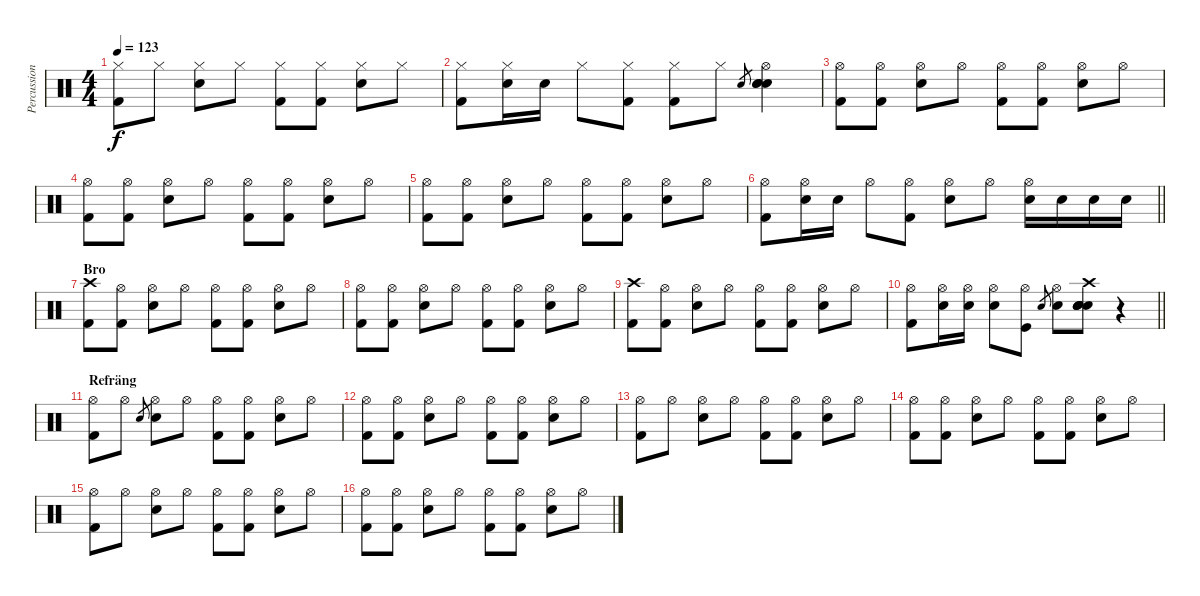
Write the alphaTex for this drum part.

\track ("Percussion" "Percussion") {instrument percussion}
\staff {score}
\articulation defaults
\ts (4 4)
\tempo 123
\clef neutral
\ks c
("Hi-Hat (closed)" "Kick (hit) 2").8{dy f} "Hi-Hat (closed)".8 ("Hi-Hat (closed)" "Snare (hit) 2").8 "Hi-Hat (closed)".8 ("Hi-Hat (closed)" "Kick (hit) 2").8 ("Hi-Hat (closed)" "Kick (hit) 2").8 ("Hi-Hat (closed)" "Snare (hit) 2").8 "Hi-Hat (closed)".8 |
("Hi-Hat (closed)" "Kick (hit) 2").8 ("Hi-Hat (closed)" "Snare (hit) 2").16 "Snare (hit) 2".16 "Hi-Hat (closed)".8 ("Hi-Hat (closed)" "Kick (hit) 2").8 ("Hi-Hat (closed)" "Kick (hit) 2").8 "Hi-Hat (closed)".8 "Snare (hit) 2".8{gr} ("Hi-Hat (open)" "Snare (hit) 2" "Snare (hit) 2" "Snare (hit) 2").4 |
("Hi-Hat (open)" "Kick (hit) 2").8 ("Hi-Hat (open)" "Kick (hit) 2").8 ("Hi-Hat (open)" "Snare (hit) 2").8 "Hi-Hat (open)".8 ("Hi-Hat (open)" "Kick (hit) 2").8 ("Hi-Hat (open)" "Kick (hit) 2").8 ("Hi-Hat (open)" "Snare (hit) 2").8 "Hi-Hat (open)".8 |
("Hi-Hat (open)" "Kick (hit) 2").8 ("Hi-Hat (open)" "Kick (hit) 2").8 ("Hi-Hat (open)" "Snare (hit) 2").8 "Hi-Hat (open)".8 ("Hi-Hat (open)" "Kick (hit) 2").8 ("Hi-Hat (open)" "Kick (hit) 2").8 ("Hi-Hat (open)" "Snare (hit) 2").8 "Hi-Hat (open)".8 |
("Hi-Hat (open)" "Kick (hit) 2").8 ("Hi-Hat (open)" "Kick (hit) 2").8 ("Hi-Hat (open)" "Snare (hit) 2").8 "Hi-Hat (open)".8 ("Hi-Hat (open)" "Kick (hit) 2").8 ("Hi-Hat (open)" "Kick (hit) 2").8 ("Hi-Hat (open)" "Snare (hit) 2").8 "Hi-Hat (open)".8 |
\barLineRight lightlight
("Hi-Hat (open)" "Kick (hit) 2").8 ("Hi-Hat (open)" "Snare (hit) 2").16 "Snare (hit) 2".16 "Hi-Hat (open)".8 ("Hi-Hat (open)" "Kick (hit) 2").8 ("Hi-Hat (open)" "Snare (hit) 2").8 "Hi-Hat (open)".8 ("Hi-Hat (open)" "Snare (hit) 2").16 "Snare (hit) 2".16 "Snare (hit) 2".16 "Snare (hit) 2".16 |
\section ("" "Bro")
("Crash high (hit)" "Kick (hit) 2").8 ("Hi-Hat (open)" "Kick (hit) 2").8 ("Hi-Hat (open)" "Snare (hit) 2").8 "Hi-Hat (open)".8 ("Hi-Hat (open)" "Kick (hit) 2").8 ("Hi-Hat (open)" "Kick (hit) 2").8 ("Hi-Hat (open)" "Snare (hit) 2").8 "Hi-Hat (open)".8 |
("Hi-Hat (open)" "Kick (hit) 2").8 ("Hi-Hat (open)" "Kick (hit) 2").8 ("Hi-Hat (open)" "Snare (hit) 2").8 "Hi-Hat (open)".8 ("Hi-Hat (open)" "Kick (hit) 2").8 ("Hi-Hat (open)" "Kick (hit) 2").8 ("Hi-Hat (open)" "Snare (hit) 2").8 "Hi-Hat (open)".8 |
("Crash high (hit)" "Kick (hit) 2").8 ("Hi-Hat (open)" "Kick (hit) 2").8 ("Hi-Hat (open)" "Snare (hit) 2").8 "Hi-Hat (open)".8 ("Hi-Hat (open)" "Kick (hit) 2").8 ("Hi-Hat (open)" "Kick (hit) 2").8 ("Hi-Hat (open)" "Snare (hit) 2").8 "Hi-Hat (open)".8 |
\barLineRight lightlight
("Hi-Hat (open)" "Kick (hit) 2").8 ("Hi-Hat (open)" "Snare (hit) 2").16 ("Hi-Hat (open)" "Snare (hit) 2").16 ("Hi-Hat (open)" "Electric Snare (hit)").8 ("Hi-Hat (open)" "Kick (hit)").8 "Snare (hit) 2".8{gr} ("Hi-Hat (open)" "Snare (hit) 2").8 ("Crash high (hit)" "Snare (hit) 2" "Snare (hit) 2" "Snare (hit) 2" "Snare (hit) 2").8 r.4 |
\section ("" "Refräng")
("Hi-Hat (open)" "Kick (hit) 2").8 "Hi-Hat (open)".8 "Snare (hit) 2".8{gr} ("Hi-Hat (open)" "Snare (hit) 2").8 "Hi-Hat (open)".8 ("Hi-Hat (open)" "Kick (hit) 2").8 ("Hi-Hat (open)" "Kick (hit) 2").8 ("Hi-Hat (open)" "Snare (hit) 2").8 "Hi-Hat (open)".8 |
("Hi-Hat (open)" "Kick (hit) 2").8 ("Hi-Hat (open)" "Kick (hit) 2").8 ("Hi-Hat (open)" "Snare (hit) 2").8 "Hi-Hat (open)".8 ("Hi-Hat (open)" "Kick (hit) 2").8 ("Hi-Hat (open)" "Kick (hit) 2").8 ("Hi-Hat (open)" "Snare (hit) 2").8 "Hi-Hat (open)".8 |
("Hi-Hat (open)" "Kick (hit) 2").8 "Hi-Hat (open)".8 ("Hi-Hat (open)" "Snare (hit) 2").8 "Hi-Hat (open)".8 ("Hi-Hat (open)" "Kick (hit) 2").8 ("Hi-Hat (open)" "Kick (hit) 2").8 ("Hi-Hat (open)" "Snare (hit) 2").8 "Hi-Hat (open)".8 |
("Hi-Hat (open)" "Kick (hit) 2").8 ("Hi-Hat (open)" "Kick (hit) 2").8 ("Hi-Hat (open)" "Snare (hit) 2").8 "Hi-Hat (open)".8 ("Hi-Hat (open)" "Kick (hit) 2").8 ("Hi-Hat (open)" "Kick (hit) 2").8 ("Hi-Hat (open)" "Snare (hit) 2").8 "Hi-Hat (open)".8 |
("Hi-Hat (open)" "Kick (hit) 2").8 "Hi-Hat (open)".8 ("Hi-Hat (open)" "Snare (hit) 2").8 "Hi-Hat (open)".8 ("Hi-Hat (open)" "Kick (hit) 2").8 ("Hi-Hat (open)" "Kick (hit) 2").8 ("Hi-Hat (open)" "Snare (hit) 2").8 "Hi-Hat (open)".8 |
("Hi-Hat (open)" "Kick (hit) 2").8 ("Hi-Hat (open)" "Kick (hit) 2").8 ("Hi-Hat (open)" "Snare (hit) 2").8 "Hi-Hat (open)".8 ("Hi-Hat (open)" "Kick (hit) 2").8 ("Hi-Hat (open)" "Kick (hit) 2").8 ("Hi-Hat (open)" "Snare (hit) 2").8 "Hi-Hat (open)".8
